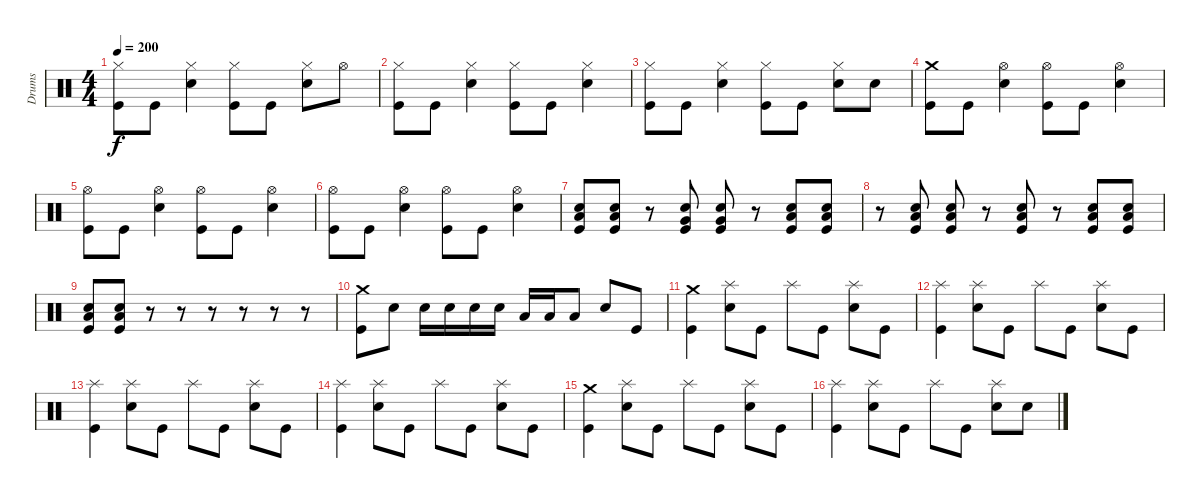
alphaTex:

\track ("Drums" "Drums") {instrument percussion}
\staff {score}
\articulation defaults
\ts (4 4)
\tempo 200
\clef neutral
\ks c
("Hi-Hat (closed)" "Kick (hit)").8{dy f} "Kick (hit)".8 ("Hi-Hat (closed)" "Electric Snare (hit)").4 ("Hi-Hat (closed)" "Kick (hit)").8 "Kick (hit)".8 ("Hi-Hat (closed)" "Electric Snare (hit)").8 "Hi-Hat (open)".8 |
("Hi-Hat (closed)" "Kick (hit)").8 "Kick (hit)".8 ("Hi-Hat (closed)" "Electric Snare (hit)").4 ("Hi-Hat (closed)" "Kick (hit)").8 "Kick (hit)".8 ("Hi-Hat (closed)" "Electric Snare (hit)").4 |
("Hi-Hat (closed)" "Kick (hit)").8 "Kick (hit)".8 ("Hi-Hat (closed)" "Electric Snare (hit)").4 ("Hi-Hat (closed)" "Kick (hit)").8 "Kick (hit)".8 ("Hi-Hat (closed)" "Electric Snare (hit)").8 "Electric Snare (hit)".8 |
("Crash medium (hit)" "Kick (hit)").8 "Kick (hit)".8 ("Hi-Hat (open)" "Electric Snare (hit)").4 ("Hi-Hat (open)" "Kick (hit)").8 "Kick (hit)".8 ("Hi-Hat (open)" "Electric Snare (hit)").4 |
("Hi-Hat (open)" "Kick (hit)").8 "Kick (hit)".8 ("Hi-Hat (open)" "Electric Snare (hit)").4 ("Hi-Hat (open)" "Kick (hit)").8 "Kick (hit)".8 ("Hi-Hat (open)" "Electric Snare (hit)").4 |
("Hi-Hat (open)" "Kick (hit)").8 "Kick (hit)".8 ("Hi-Hat (open)" "Electric Snare (hit)").4 ("Hi-Hat (open)" "Kick (hit)").8 "Kick (hit)".8 ("Hi-Hat (open)" "Electric Snare (hit)").4 |
("Low Tom (hit)" "Electric Snare (hit)" "Kick (hit)").8 ("Low Tom (hit)" "Electric Snare (hit)" "Kick (hit)").8 r.8 ("Very Low Tom (hit)" "Electric Snare (hit)" "Kick (hit)").8 ("Very Low Tom (hit)" "Electric Snare (hit)" "Kick (hit)").8 r.8 ("Low Floor Tom (hit)" "Electric Snare (hit)" "Kick (hit)").8 ("Low Floor Tom (hit)" "Electric Snare (hit)" "Kick (hit)").8 |
r.8 ("Low Floor Tom (hit)" "Electric Snare (hit)" "Kick (hit)").8 ("Low Floor Tom (hit)" "Electric Snare (hit)" "Kick (hit)").8 r.8 ("Low Floor Tom (hit)" "Electric Snare (hit)" "Kick (hit)").8 r.8 ("Low Floor Tom (hit)" "Electric Snare (hit)" "Kick (hit)").8 ("Low Floor Tom (hit)" "Electric Snare (hit)" "Kick (hit)").8 |
("Low Floor Tom (hit)" "Electric Snare (hit)" "Kick (hit)").8 ("Low Floor Tom (hit)" "Electric Snare (hit)" "Kick (hit)").8 r.8 r.8 r.8 r.8 r.8 r.8 |
("Crash medium (hit)" "Kick (hit)").8 "Electric Snare (hit)".8 "Electric Snare (hit)".16 "Electric Snare (hit)".16 "Electric Snare (hit)".16 "Electric Snare (hit)".16 "Low Tom (hit)".16 "Low Tom (hit)".16 "Low Tom (hit)".8 "Electric Snare (hit)".8 "Kick (hit)".8 |
("Crash medium (hit)" "Kick (hit)").4 ("Splash (hit)" "Electric Snare (hit)").8 "Kick (hit)".8 "Splash (hit)".8 "Kick (hit)".8 ("Splash (hit)" "Electric Snare (hit)").8 "Kick (hit)".8 |
("Splash (hit)" "Kick (hit)").4 ("Splash (hit)" "Electric Snare (hit)").8 "Kick (hit)".8 "Splash (hit)".8 "Kick (hit)".8 ("Splash (hit)" "Electric Snare (hit)").8 "Kick (hit)".8 |
("Splash (hit)" "Kick (hit)").4 ("Splash (hit)" "Electric Snare (hit)").8 "Kick (hit)".8 "Splash (hit)".8 "Kick (hit)".8 ("Splash (hit)" "Electric Snare (hit)").8 "Kick (hit)".8 |
("Splash (hit)" "Kick (hit)").4 ("Splash (hit)" "Electric Snare (hit)").8 "Kick (hit)".8 "Splash (hit)".8 "Kick (hit)".8 ("Splash (hit)" "Electric Snare (hit)").8 "Kick (hit)".8 |
("Crash medium (hit)" "Kick (hit)").4 ("Splash (hit)" "Electric Snare (hit)").8 "Kick (hit)".8 "Splash (hit)".8 "Kick (hit)".8 ("Splash (hit)" "Electric Snare (hit)").8 "Kick (hit)".8 |
("Splash (hit)" "Kick (hit)").4 ("Splash (hit)" "Electric Snare (hit)").8 "Kick (hit)".8 "Splash (hit)".8 "Kick (hit)".8 ("Splash (hit)" "Electric Snare (hit)").8 "Electric Snare (hit)".8
